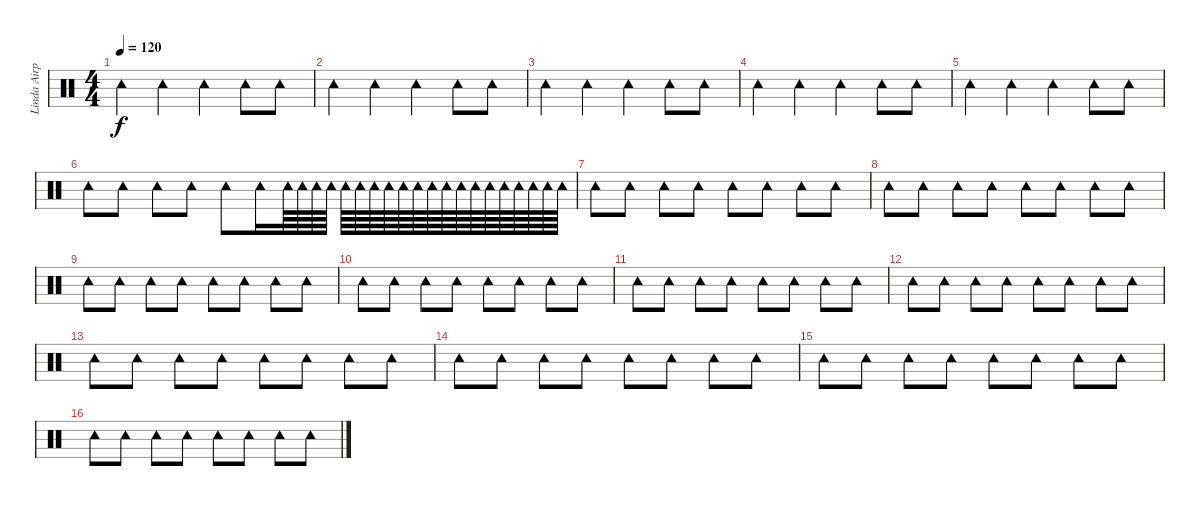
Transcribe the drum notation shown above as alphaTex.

\track ("Linda Airplane" "Linda Airp") {instrument percussion}
\staff {score}
\articulation defaults
\ts (4 4)
\tempo 120
\clef neutral
\ks c "Tambourine (hit)".4{dy f} "Tambourine (hit)".4 "Tambourine (hit)".4 "Tambourine (hit)".8 "Tambourine (hit)".8
|
"Tambourine (hit)".4 "Tambourine (hit)".4 "Tambourine (hit)".4 "Tambourine (hit)".8 "Tambourine (hit)".8 |
"Tambourine (hit)".4 "Tambourine (hit)".4 "Tambourine (hit)".4 "Tambourine (hit)".8 "Tambourine (hit)".8 |
"Tambourine (hit)".4 "Tambourine (hit)".4 "Tambourine (hit)".4 "Tambourine (hit)".8 "Tambourine (hit)".8 |
"Tambourine (hit)".4 "Tambourine (hit)".4 "Tambourine (hit)".4 "Tambourine (hit)".8 "Tambourine (hit)".8 |
"Tambourine (hit)".8 "Tambourine (hit)".8 "Tambourine (hit)".8 "Tambourine (hit)".8 "Tambourine (hit)".8 "Tambourine (hit)".16 "Tambourine (hit)".64 "Tambourine (hit)".64 "Tambourine (hit)".64 "Tambourine (hit)".64 "Tambourine (hit)".64 "Tambourine (hit)".64 "Tambourine (hit)".64 "Tambourine (hit)".64 "Tambourine (hit)".64 "Tambourine (hit)".64 "Tambourine (hit)".64 "Tambourine (hit)".64 "Tambourine (hit)".64 "Tambourine (hit)".64 "Tambourine (hit)".64 "Tambourine (hit)".64 "Tambourine (hit)".64 "Tambourine (hit)".64 "Tambourine (hit)".64 "Tambourine (hit)".64 |
"Tambourine (hit)".8 "Tambourine (hit)".8 "Tambourine (hit)".8 "Tambourine (hit)".8 "Tambourine (hit)".8 "Tambourine (hit)".8 "Tambourine (hit)".8 "Tambourine (hit)".8 |
"Tambourine (hit)".8 "Tambourine (hit)".8 "Tambourine (hit)".8 "Tambourine (hit)".8 "Tambourine (hit)".8 "Tambourine (hit)".8 "Tambourine (hit)".8 "Tambourine (hit)".8 |
"Tambourine (hit)".8 "Tambourine (hit)".8 "Tambourine (hit)".8 "Tambourine (hit)".8 "Tambourine (hit)".8 "Tambourine (hit)".8 "Tambourine (hit)".8 "Tambourine (hit)".8 |
"Tambourine (hit)".8 "Tambourine (hit)".8 "Tambourine (hit)".8 "Tambourine (hit)".8 "Tambourine (hit)".8 "Tambourine (hit)".8 "Tambourine (hit)".8 "Tambourine (hit)".8 |
"Tambourine (hit)".8 "Tambourine (hit)".8 "Tambourine (hit)".8 "Tambourine (hit)".8 "Tambourine (hit)".8 "Tambourine (hit)".8 "Tambourine (hit)".8 "Tambourine (hit)".8 |
"Tambourine (hit)".8 "Tambourine (hit)".8 "Tambourine (hit)".8 "Tambourine (hit)".8 "Tambourine (hit)".8 "Tambourine (hit)".8 "Tambourine (hit)".8 "Tambourine (hit)".8 |
"Tambourine (hit)".8 "Tambourine (hit)".8 "Tambourine (hit)".8 "Tambourine (hit)".8 "Tambourine (hit)".8 "Tambourine (hit)".8 "Tambourine (hit)".8 "Tambourine (hit)".8 |
"Tambourine (hit)".8 "Tambourine (hit)".8 "Tambourine (hit)".8 "Tambourine (hit)".8 "Tambourine (hit)".8 "Tambourine (hit)".8 "Tambourine (hit)".8 "Tambourine (hit)".8 |
"Tambourine (hit)".8 "Tambourine (hit)".8 "Tambourine (hit)".8 "Tambourine (hit)".8 "Tambourine (hit)".8 "Tambourine (hit)".8 "Tambourine (hit)".8 "Tambourine (hit)".8 |
"Tambourine (hit)".8 "Tambourine (hit)".8 "Tambourine (hit)".8 "Tambourine (hit)".8 "Tambourine (hit)".8 "Tambourine (hit)".8 "Tambourine (hit)".8 "Tambourine (hit)".8
